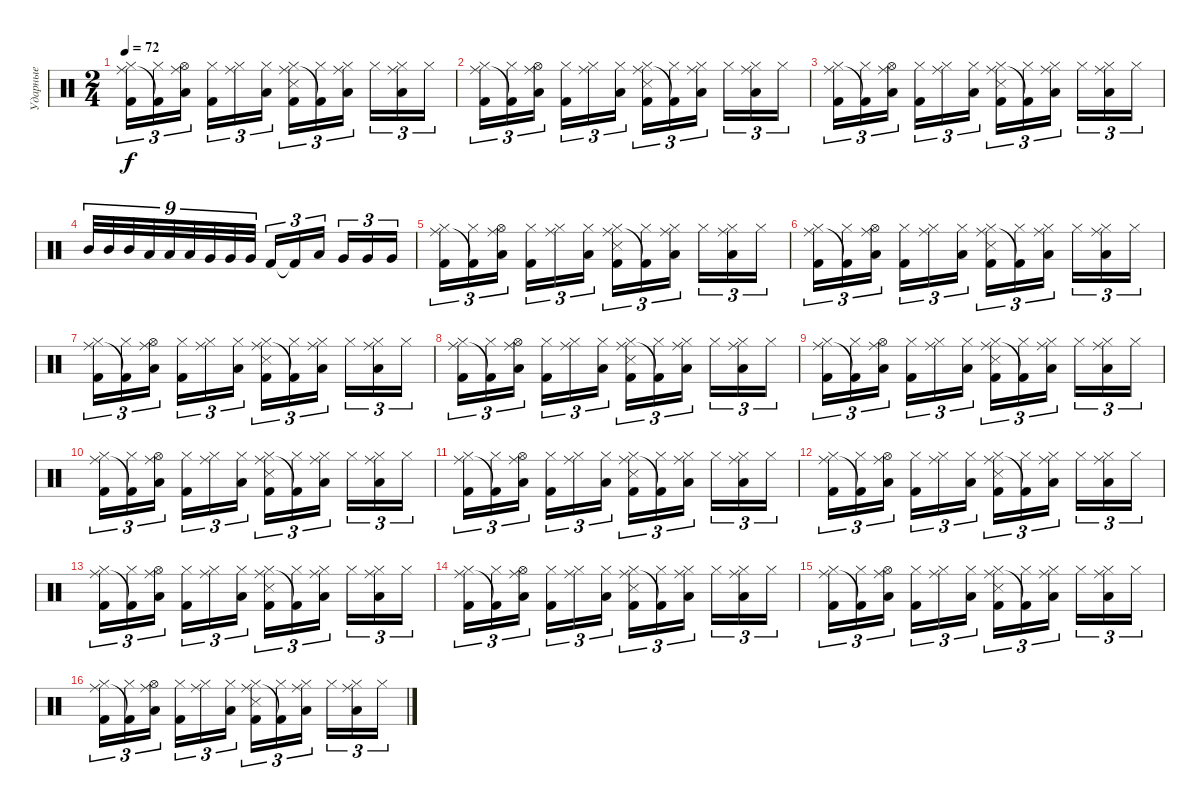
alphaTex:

\track ("Ударные" "Ударные") {instrument percussion}
\staff {score}
\articulation defaults
\ts (2 4)
\tempo 72
\clef neutral
\ks c
("Hi-Hat (closed)" "Ride (middle)" "Kick (hit) 2").16{tu (3 2) dy f} ("Hi-Hat (closed)" "Kick (hit) 2"{t}).16{tu (3 2)} ("Hi-Hat (open)" "Ride (middle)" "Low Tom (hit)").16{tu (3 2)} ("Hi-Hat (closed)" "Kick (hit) 2").16{tu (3 2)} ("Hi-Hat (closed)" "Ride (middle)").16{tu (3 2)} ("Hi-Hat (closed)" "Low Tom (hit)").16{tu (3 2)} ("Hi-Hat (closed)" "Ride (middle)" "Snare (side stick) 3" "Kick (hit) 2").16{tu (3 2)} ("Hi-Hat (closed)" "Kick (hit) 2"{t}).16{tu (3 2)} ("Hi-Hat (closed)" "Ride (middle)" "Low Tom (hit)").16{tu (3 2)} "Hi-Hat (closed)".16{tu (3 2)} ("Hi-Hat (closed)" "Ride (middle)" "Low Tom (hit)").16{tu (3 2)} "Hi-Hat (closed)".16{tu (3 2)} |
("Hi-Hat (closed)" "Ride (middle)" "Kick (hit) 2").16{tu (3 2)} ("Hi-Hat (closed)" "Kick (hit) 2"{t}).16{tu (3 2)} ("Hi-Hat (open)" "Ride (middle)" "Low Tom (hit)").16{tu (3 2)} ("Hi-Hat (closed)" "Kick (hit) 2").16{tu (3 2)} ("Hi-Hat (closed)" "Ride (middle)").16{tu (3 2)} ("Hi-Hat (closed)" "Low Tom (hit)").16{tu (3 2)} ("Hi-Hat (closed)" "Ride (middle)" "Snare (side stick) 3" "Kick (hit) 2").16{tu (3 2)} ("Hi-Hat (closed)" "Kick (hit) 2"{t}).16{tu (3 2)} ("Hi-Hat (closed)" "Ride (middle)" "Low Tom (hit)").16{tu (3 2)} "Hi-Hat (closed)".16{tu (3 2)} ("Hi-Hat (closed)" "Ride (middle)" "Low Tom (hit)").16{tu (3 2)} "Hi-Hat (closed)".16{tu (3 2)} |
("Hi-Hat (closed)" "Ride (middle)" "Kick (hit) 2").16{tu (3 2)} ("Hi-Hat (closed)" "Kick (hit) 2"{t}).16{tu (3 2)} ("Hi-Hat (open)" "Ride (middle)" "Low Tom (hit)").16{tu (3 2)} ("Hi-Hat (closed)" "Kick (hit) 2").16{tu (3 2)} ("Hi-Hat (closed)" "Ride (middle)").16{tu (3 2)} ("Hi-Hat (closed)" "Low Tom (hit)").16{tu (3 2)} ("Hi-Hat (closed)" "Ride (middle)" "Snare (side stick) 3" "Kick (hit) 2").16{tu (3 2)} ("Hi-Hat (closed)" "Kick (hit) 2"{t}).16{tu (3 2)} ("Hi-Hat (closed)" "Ride (middle)" "Low Tom (hit)").16{tu (3 2)} "Hi-Hat (closed)".16{tu (3 2)} ("Hi-Hat (closed)" "Ride (middle)" "Low Tom (hit)").16{tu (3 2)} "Hi-Hat (closed)".16{tu (3 2)} |
"Mid Tom (hit)".32{tu (9 8)} "Mid Tom (hit)".32{tu (9 8)} "Mid Tom (hit)".32{tu (9 8)} "Low Tom (hit)".32{tu (9 8)} "Low Tom (hit)".32{tu (9 8)} "Low Tom (hit)".32{tu (9 8)} "Very Low Tom (hit)".32{tu (9 8)} "Very Low Tom (hit)".32{tu (9 8)} "Very Low Tom (hit)".32{tu (9 8)} "Kick (hit) 2".16{tu (3 2)} "Kick (hit) 2"{t}.16{tu (3 2)} "Low Tom (hit)".16{tu (3 2)} "Very Low Tom (hit)".16{tu (3 2)} "Very Low Tom (hit)".16{tu (3 2)} "Very Low Tom (hit)".16{tu (3 2)} |
("Hi-Hat (closed)" "Ride (middle)" "Kick (hit) 2").16{tu (3 2)} ("Hi-Hat (closed)" "Kick (hit) 2"{t}).16{tu (3 2)} ("Hi-Hat (open)" "Ride (middle)" "Low Tom (hit)").16{tu (3 2)} ("Hi-Hat (closed)" "Kick (hit) 2").16{tu (3 2)} ("Hi-Hat (closed)" "Ride (middle)").16{tu (3 2)} ("Hi-Hat (closed)" "Low Tom (hit)").16{tu (3 2)} ("Hi-Hat (closed)" "Ride (middle)" "Snare (side stick) 3" "Kick (hit) 2").16{tu (3 2)} ("Hi-Hat (closed)" "Kick (hit) 2"{t}).16{tu (3 2)} ("Hi-Hat (closed)" "Ride (middle)" "Low Tom (hit)").16{tu (3 2)} "Hi-Hat (closed)".16{tu (3 2)} ("Hi-Hat (closed)" "Ride (middle)" "Low Tom (hit)").16{tu (3 2)} "Hi-Hat (closed)".16{tu (3 2)} |
("Hi-Hat (closed)" "Ride (middle)" "Kick (hit) 2").16{tu (3 2)} ("Hi-Hat (closed)" "Kick (hit) 2"{t}).16{tu (3 2)} ("Hi-Hat (open)" "Ride (middle)" "Low Tom (hit)").16{tu (3 2)} ("Hi-Hat (closed)" "Kick (hit) 2").16{tu (3 2)} ("Hi-Hat (closed)" "Ride (middle)").16{tu (3 2)} ("Hi-Hat (closed)" "Low Tom (hit)").16{tu (3 2)} ("Hi-Hat (closed)" "Ride (middle)" "Snare (side stick) 3" "Kick (hit) 2").16{tu (3 2)} ("Hi-Hat (closed)" "Kick (hit) 2"{t}).16{tu (3 2)} ("Hi-Hat (closed)" "Ride (middle)" "Low Tom (hit)").16{tu (3 2)} "Hi-Hat (closed)".16{tu (3 2)} ("Hi-Hat (closed)" "Ride (middle)" "Low Tom (hit)").16{tu (3 2)} "Hi-Hat (closed)".16{tu (3 2)} |
("Hi-Hat (closed)" "Ride (middle)" "Kick (hit) 2").16{tu (3 2)} ("Hi-Hat (closed)" "Kick (hit) 2"{t}).16{tu (3 2)} ("Hi-Hat (open)" "Ride (middle)" "Low Tom (hit)").16{tu (3 2)} ("Hi-Hat (closed)" "Kick (hit) 2").16{tu (3 2)} ("Hi-Hat (closed)" "Ride (middle)").16{tu (3 2)} ("Hi-Hat (closed)" "Low Tom (hit)").16{tu (3 2)} ("Hi-Hat (closed)" "Ride (middle)" "Snare (side stick) 3" "Kick (hit) 2").16{tu (3 2)} ("Hi-Hat (closed)" "Kick (hit) 2"{t}).16{tu (3 2)} ("Hi-Hat (closed)" "Ride (middle)" "Low Tom (hit)").16{tu (3 2)} "Hi-Hat (closed)".16{tu (3 2)} ("Hi-Hat (closed)" "Ride (middle)" "Low Tom (hit)").16{tu (3 2)} "Hi-Hat (closed)".16{tu (3 2)} |
("Hi-Hat (closed)" "Ride (middle)" "Kick (hit) 2").16{tu (3 2)} ("Hi-Hat (closed)" "Kick (hit) 2"{t}).16{tu (3 2)} ("Hi-Hat (open)" "Ride (middle)" "Low Tom (hit)").16{tu (3 2)} ("Hi-Hat (closed)" "Kick (hit) 2").16{tu (3 2)} ("Hi-Hat (closed)" "Ride (middle)").16{tu (3 2)} ("Hi-Hat (closed)" "Low Tom (hit)").16{tu (3 2)} ("Hi-Hat (closed)" "Ride (middle)" "Snare (side stick) 3" "Kick (hit) 2").16{tu (3 2)} ("Hi-Hat (closed)" "Kick (hit) 2"{t}).16{tu (3 2)} ("Hi-Hat (closed)" "Ride (middle)" "Low Tom (hit)").16{tu (3 2)} "Hi-Hat (closed)".16{tu (3 2)} ("Hi-Hat (closed)" "Ride (middle)" "Low Tom (hit)").16{tu (3 2)} "Hi-Hat (closed)".16{tu (3 2)} |
("Hi-Hat (closed)" "Ride (middle)" "Kick (hit) 2").16{tu (3 2)} ("Hi-Hat (closed)" "Kick (hit) 2"{t}).16{tu (3 2)} ("Hi-Hat (open)" "Ride (middle)" "Low Tom (hit)").16{tu (3 2)} ("Hi-Hat (closed)" "Kick (hit) 2").16{tu (3 2)} ("Hi-Hat (closed)" "Ride (middle)").16{tu (3 2)} ("Hi-Hat (closed)" "Low Tom (hit)").16{tu (3 2)} ("Hi-Hat (closed)" "Ride (middle)" "Snare (side stick) 3" "Kick (hit) 2").16{tu (3 2)} ("Hi-Hat (closed)" "Kick (hit) 2"{t}).16{tu (3 2)} ("Hi-Hat (closed)" "Ride (middle)" "Low Tom (hit)").16{tu (3 2)} "Hi-Hat (closed)".16{tu (3 2)} ("Hi-Hat (closed)" "Ride (middle)" "Low Tom (hit)").16{tu (3 2)} "Hi-Hat (closed)".16{tu (3 2)} |
("Hi-Hat (closed)" "Ride (middle)" "Kick (hit) 2").16{tu (3 2)} ("Hi-Hat (closed)" "Kick (hit) 2"{t}).16{tu (3 2)} ("Hi-Hat (open)" "Ride (middle)" "Low Tom (hit)").16{tu (3 2)} ("Hi-Hat (closed)" "Kick (hit) 2").16{tu (3 2)} ("Hi-Hat (closed)" "Ride (middle)").16{tu (3 2)} ("Hi-Hat (closed)" "Low Tom (hit)").16{tu (3 2)} ("Hi-Hat (closed)" "Ride (middle)" "Snare (side stick) 3" "Kick (hit) 2").16{tu (3 2)} ("Hi-Hat (closed)" "Kick (hit) 2"{t}).16{tu (3 2)} ("Hi-Hat (closed)" "Ride (middle)" "Low Tom (hit)").16{tu (3 2)} "Hi-Hat (closed)".16{tu (3 2)} ("Hi-Hat (closed)" "Ride (middle)" "Low Tom (hit)").16{tu (3 2)} "Hi-Hat (closed)".16{tu (3 2)} |
("Hi-Hat (closed)" "Ride (middle)" "Kick (hit) 2").16{tu (3 2)} ("Hi-Hat (closed)" "Kick (hit) 2"{t}).16{tu (3 2)} ("Hi-Hat (open)" "Ride (middle)" "Low Tom (hit)").16{tu (3 2)} ("Hi-Hat (closed)" "Kick (hit) 2").16{tu (3 2)} ("Hi-Hat (closed)" "Ride (middle)").16{tu (3 2)} ("Hi-Hat (closed)" "Low Tom (hit)").16{tu (3 2)} ("Hi-Hat (closed)" "Ride (middle)" "Snare (side stick) 3" "Kick (hit) 2").16{tu (3 2)} ("Hi-Hat (closed)" "Kick (hit) 2"{t}).16{tu (3 2)} ("Hi-Hat (closed)" "Ride (middle)" "Low Tom (hit)").16{tu (3 2)} "Hi-Hat (closed)".16{tu (3 2)} ("Hi-Hat (closed)" "Ride (middle)" "Low Tom (hit)").16{tu (3 2)} "Hi-Hat (closed)".16{tu (3 2)} |
("Hi-Hat (closed)" "Ride (middle)" "Kick (hit) 2").16{tu (3 2)} ("Hi-Hat (closed)" "Kick (hit) 2"{t}).16{tu (3 2)} ("Hi-Hat (open)" "Ride (middle)" "Low Tom (hit)").16{tu (3 2)} ("Hi-Hat (closed)" "Kick (hit) 2").16{tu (3 2)} ("Hi-Hat (closed)" "Ride (middle)").16{tu (3 2)} ("Hi-Hat (closed)" "Low Tom (hit)").16{tu (3 2)} ("Hi-Hat (closed)" "Ride (middle)" "Snare (side stick) 3" "Kick (hit) 2").16{tu (3 2)} ("Hi-Hat (closed)" "Kick (hit) 2"{t}).16{tu (3 2)} ("Hi-Hat (closed)" "Ride (middle)" "Low Tom (hit)").16{tu (3 2)} "Hi-Hat (closed)".16{tu (3 2)} ("Hi-Hat (closed)" "Ride (middle)" "Low Tom (hit)").16{tu (3 2)} "Hi-Hat (closed)".16{tu (3 2)} |
("Hi-Hat (closed)" "Ride (middle)" "Kick (hit) 2").16{tu (3 2)} ("Hi-Hat (closed)" "Kick (hit) 2"{t}).16{tu (3 2)} ("Hi-Hat (open)" "Ride (middle)" "Low Tom (hit)").16{tu (3 2)} ("Hi-Hat (closed)" "Kick (hit) 2").16{tu (3 2)} ("Hi-Hat (closed)" "Ride (middle)").16{tu (3 2)} ("Hi-Hat (closed)" "Low Tom (hit)").16{tu (3 2)} ("Hi-Hat (closed)" "Ride (middle)" "Snare (side stick) 3" "Kick (hit) 2").16{tu (3 2)} ("Hi-Hat (closed)" "Kick (hit) 2"{t}).16{tu (3 2)} ("Hi-Hat (closed)" "Ride (middle)" "Low Tom (hit)").16{tu (3 2)} "Hi-Hat (closed)".16{tu (3 2)} ("Hi-Hat (closed)" "Ride (middle)" "Low Tom (hit)").16{tu (3 2)} "Hi-Hat (closed)".16{tu (3 2)} |
("Hi-Hat (closed)" "Ride (middle)" "Kick (hit) 2").16{tu (3 2)} ("Hi-Hat (closed)" "Kick (hit) 2"{t}).16{tu (3 2)} ("Hi-Hat (open)" "Ride (middle)" "Low Tom (hit)").16{tu (3 2)} ("Hi-Hat (closed)" "Kick (hit) 2").16{tu (3 2)} ("Hi-Hat (closed)" "Ride (middle)").16{tu (3 2)} ("Hi-Hat (closed)" "Low Tom (hit)").16{tu (3 2)} ("Hi-Hat (closed)" "Ride (middle)" "Snare (side stick) 3" "Kick (hit) 2").16{tu (3 2)} ("Hi-Hat (closed)" "Kick (hit) 2"{t}).16{tu (3 2)} ("Hi-Hat (closed)" "Ride (middle)" "Low Tom (hit)").16{tu (3 2)} "Hi-Hat (closed)".16{tu (3 2)} ("Hi-Hat (closed)" "Ride (middle)" "Low Tom (hit)").16{tu (3 2)} "Hi-Hat (closed)".16{tu (3 2)} |
("Hi-Hat (closed)" "Ride (middle)" "Kick (hit) 2").16{tu (3 2)} ("Hi-Hat (closed)" "Kick (hit) 2"{t}).16{tu (3 2)} ("Hi-Hat (open)" "Ride (middle)" "Low Tom (hit)").16{tu (3 2)} ("Hi-Hat (closed)" "Kick (hit) 2").16{tu (3 2)} ("Hi-Hat (closed)" "Ride (middle)").16{tu (3 2)} ("Hi-Hat (closed)" "Low Tom (hit)").16{tu (3 2)} ("Hi-Hat (closed)" "Ride (middle)" "Snare (side stick) 3" "Kick (hit) 2").16{tu (3 2)} ("Hi-Hat (closed)" "Kick (hit) 2"{t}).16{tu (3 2)} ("Hi-Hat (closed)" "Ride (middle)" "Low Tom (hit)").16{tu (3 2)} "Hi-Hat (closed)".16{tu (3 2)} ("Hi-Hat (closed)" "Ride (middle)" "Low Tom (hit)").16{tu (3 2)} "Hi-Hat (closed)".16{tu (3 2)} |
("Hi-Hat (closed)" "Ride (middle)" "Kick (hit) 2").16{tu (3 2)} ("Hi-Hat (closed)" "Kick (hit) 2"{t}).16{tu (3 2)} ("Hi-Hat (open)" "Ride (middle)" "Low Tom (hit)").16{tu (3 2)} ("Hi-Hat (closed)" "Kick (hit) 2").16{tu (3 2)} ("Hi-Hat (closed)" "Ride (middle)").16{tu (3 2)} ("Hi-Hat (closed)" "Low Tom (hit)").16{tu (3 2)} ("Hi-Hat (closed)" "Ride (middle)" "Snare (side stick) 3" "Kick (hit) 2").16{tu (3 2)} ("Hi-Hat (closed)" "Kick (hit) 2"{t}).16{tu (3 2)} ("Hi-Hat (closed)" "Ride (middle)" "Low Tom (hit)").16{tu (3 2)} "Hi-Hat (closed)".16{tu (3 2)} ("Hi-Hat (closed)" "Ride (middle)" "Low Tom (hit)").16{tu (3 2)} "Hi-Hat (closed)".16{tu (3 2)}
